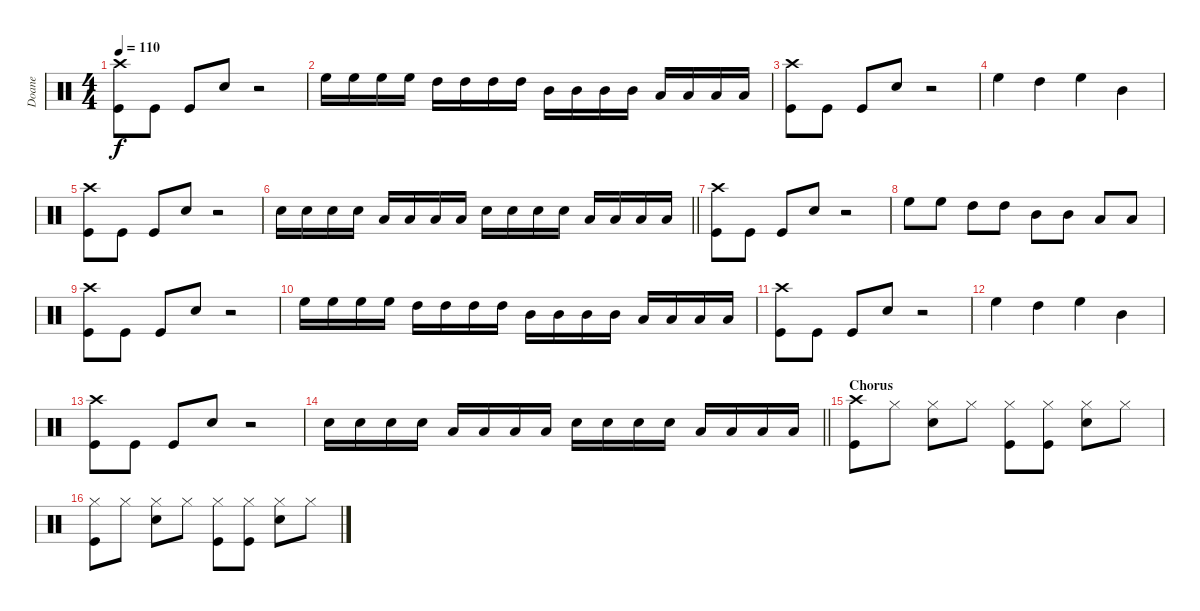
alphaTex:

\track ("Doane" "Doane") {instrument percussion}
\staff {score}
\articulation defaults
\ts (4 4)
\tempo 110
\clef neutral
\ks c
("Crash high (hit)" "Kick (hit)").8{dy f} "Kick (hit)".8 "Kick (hit)".8 "Snare (hit) 2".8 r.2 |
"High Floor Tom (hit)".16 "High Floor Tom (hit)".16 "High Floor Tom (hit)".16 "High Floor Tom (hit)".16 "High Tom (hit)".16 "High Tom (hit)".16 "High Tom (hit)".16 "High Tom (hit)".16 "Mid Tom (hit)".16 "Mid Tom (hit)".16 "Mid Tom (hit)".16 "Mid Tom (hit)".16 "Low Tom (hit)".16 "Low Tom (hit)".16 "Low Tom (hit)".16 "Low Tom (hit)".16 |
("Crash high (hit)" "Kick (hit)").8 "Kick (hit)".8 "Kick (hit)".8 "Snare (hit) 2".8 r.2 |
"High Floor Tom (hit)".4 "High Tom (hit)".4 "High Floor Tom (hit)".4 "Mid Tom (hit)".4 |
("Crash high (hit)" "Kick (hit)").8 "Kick (hit)".8 "Kick (hit)".8 "Snare (hit) 2".8 r.2 |
\barLineRight lightlight "Snare (hit) 2".16 "Snare (hit) 2".16 "Snare (hit) 2".16 "Snare (hit) 2".16 "Low Tom (hit)".16 "Low Tom (hit)".16 "Low Tom (hit)".16 "Low Tom (hit)".16 "Snare (hit) 2".16 "Snare (hit) 2".16 "Snare (hit) 2".16 "Snare (hit) 2".16 "Low Tom (hit)".16 "Low Tom (hit)".16 "Low Tom (hit)".16 "Low Tom (hit)".16
|
("Crash high (hit)" "Kick (hit)").8 "Kick (hit)".8 "Kick (hit)".8 "Snare (hit) 2".8 r.2 |
"High Floor Tom (hit)".8 "High Floor Tom (hit)".8 "High Tom (hit)".8 "High Tom (hit)".8 "Mid Tom (hit)".8 "Mid Tom (hit)".8 "Low Tom (hit)".8 "Low Tom (hit)".8 |
("Crash high (hit)" "Kick (hit)").8 "Kick (hit)".8 "Kick (hit)".8 "Snare (hit) 2".8 r.2 |
"High Floor Tom (hit)".16 "High Floor Tom (hit)".16 "High Floor Tom (hit)".16 "High Floor Tom (hit)".16 "High Tom (hit)".16 "High Tom (hit)".16 "High Tom (hit)".16 "High Tom (hit)".16 "Mid Tom (hit)".16 "Mid Tom (hit)".16 "Mid Tom (hit)".16 "Mid Tom (hit)".16 "Low Tom (hit)".16 "Low Tom (hit)".16 "Low Tom (hit)".16 "Low Tom (hit)".16 |
("Crash high (hit)" "Kick (hit)").8 "Kick (hit)".8 "Kick (hit)".8 "Snare (hit) 2".8 r.2 |
"High Floor Tom (hit)".4 "High Tom (hit)".4 "High Floor Tom (hit)".4 "Mid Tom (hit)".4 |
("Crash high (hit)" "Kick (hit)").8 "Kick (hit)".8 "Kick (hit)".8 "Snare (hit) 2".8 r.2 |
\barLineRight lightlight "Snare (hit) 2".16 "Snare (hit) 2".16 "Snare (hit) 2".16 "Snare (hit) 2".16 "Low Tom (hit)".16 "Low Tom (hit)".16 "Low Tom (hit)".16 "Low Tom (hit)".16 "Snare (hit) 2".16 "Snare (hit) 2".16 "Snare (hit) 2".16 "Snare (hit) 2".16 "Low Tom (hit)".16 "Low Tom (hit)".16 "Low Tom (hit)".16 "Low Tom (hit)".16
|
\section ("" "Chorus")
("Crash high (hit)" "Kick (hit)").8 "Hi-Hat (closed)".8 ("Hi-Hat (closed)" "Snare (hit) 2").8 "Hi-Hat (closed)".8 ("Hi-Hat (closed)" "Kick (hit)").8 ("Hi-Hat (closed)" "Kick (hit)").8 ("Hi-Hat (closed)" "Snare (hit) 2").8 "Hi-Hat (closed)".8 |
("Hi-Hat (closed)" "Kick (hit)").8 "Hi-Hat (closed)".8 ("Hi-Hat (closed)" "Snare (hit) 2").8 "Hi-Hat (closed)".8 ("Hi-Hat (closed)" "Kick (hit)").8 ("Hi-Hat (closed)" "Kick (hit)").8 ("Hi-Hat (closed)" "Snare (hit) 2").8 "Hi-Hat (closed)".8
